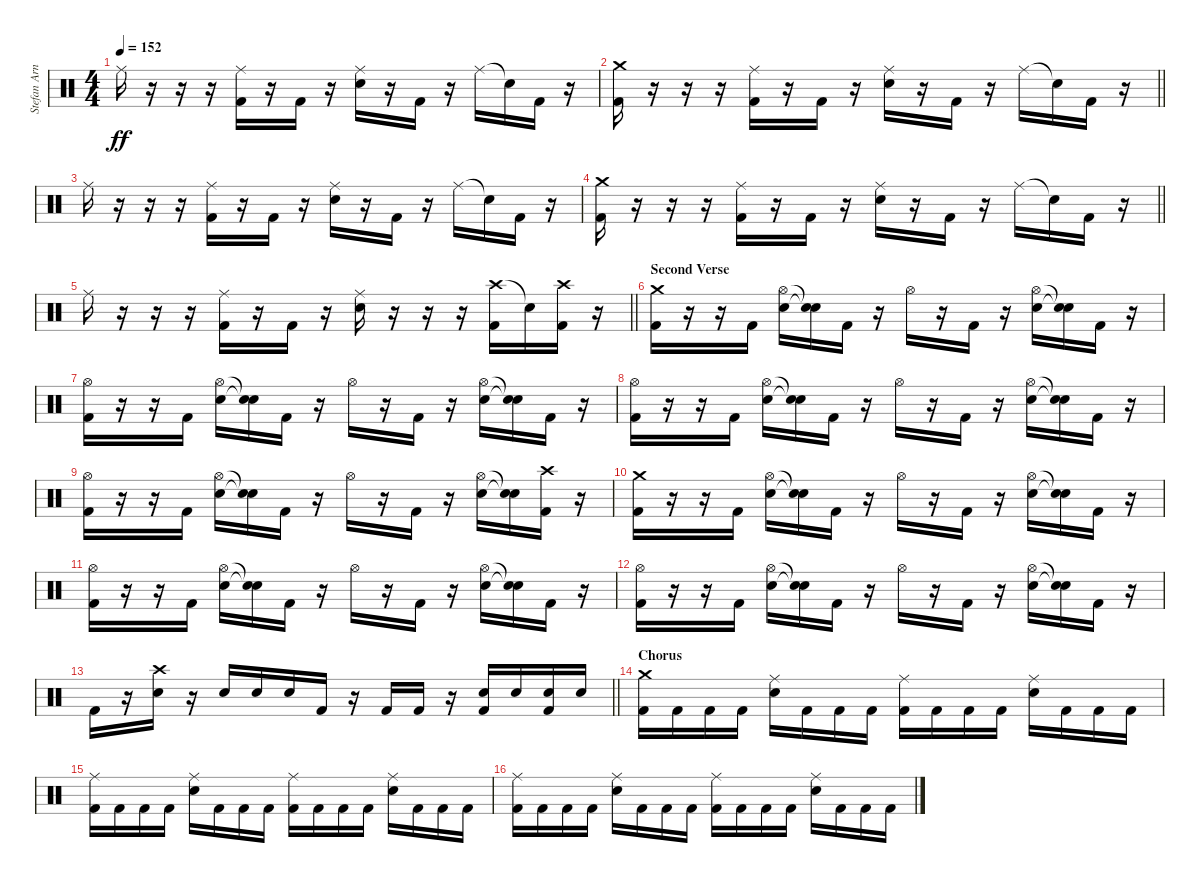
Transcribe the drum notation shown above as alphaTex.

\track ("Stefan Arnold" "Stefan Arn") {instrument percussion}
\staff {score}
\articulation defaults
\ts (4 4)
\tempo 152
\clef neutral
\ks c "Ride (middle)".16{dy ff}
r.16 r.16 r.16 ("Ride (middle)" "Kick (hit) 2").16 r.16 "Kick (hit) 2".16 r.16 ("Ride (middle)" "Electric Snare (hit)").16 r.16 "Kick (hit) 2".16 r.16 "Ride (middle)".16 "Snare (hit)"{t}.16 "Kick (hit) 2".16 r.16 |
\barLineRight lightlight
("Crash medium (hit)" "Kick (hit) 2").16 r.16 r.16 r.16 ("Ride (middle)" "Kick (hit) 2").16 r.16 "Kick (hit) 2".16 r.16 ("Ride (middle)" "Electric Snare (hit)").16 r.16 "Kick (hit) 2".16 r.16 "Ride (middle)".16 "Snare (hit)"{t}.16 "Kick (hit) 2".16 r.16 |
"Ride (middle)".16 r.16 r.16 r.16 ("Ride (middle)" "Kick (hit) 2").16 r.16 "Kick (hit) 2".16 r.16 ("Ride (middle)" "Electric Snare (hit)").16 r.16 "Kick (hit) 2".16 r.16 "Ride (middle)".16 "Snare (hit)"{t}.16 "Kick (hit) 2".16 r.16 |
\barLineRight lightlight
("Crash medium (hit)" "Kick (hit) 2").16 r.16 r.16 r.16 ("Ride (middle)" "Kick (hit) 2").16 r.16 "Kick (hit) 2".16 r.16 ("Ride (middle)" "Electric Snare (hit)").16 r.16 "Kick (hit) 2".16 r.16 "Ride (middle)".16 "Snare (hit)"{t}.16 "Kick (hit) 2".16 r.16 |
\barLineRight lightlight "Ride (middle)".16
r.16 r.16 r.16 ("Ride (middle)" "Kick (hit) 2").16 r.16 "Kick (hit) 2".16 r.16 ("Ride (middle)" "Electric Snare (hit)").16 r.16 r.16 r.16 ("Crash high (hit)" "Kick (hit) 2").16 "Snare (hit)"{t}.16 ("Crash high (hit)" "Kick (hit) 2").16 r.16 |
\section ("" "Second Verse")
("Crash medium (hit)" "Kick (hit) 2").16 r.16 r.16 "Kick (hit) 2".16 ("Hi-Hat (open)" "Electric Snare (hit)").16 ("Snare (hit)"{t} "Electric Snare (hit)"{t}).16 "Kick (hit) 2".16 r.16 "Hi-Hat (open)".16 r.16 "Kick (hit) 2".16 r.16 ("Hi-Hat (open)" "Electric Snare (hit)").16 ("Snare (hit)"{t} "Electric Snare (hit)"{t}).16 "Kick (hit) 2".16 r.16 |
("Hi-Hat (open)" "Kick (hit) 2").16 r.16 r.16 "Kick (hit) 2".16 ("Hi-Hat (open)" "Electric Snare (hit)").16 ("Snare (hit)"{t} "Electric Snare (hit)"{t}).16 "Kick (hit) 2".16 r.16 "Hi-Hat (open)".16 r.16 "Kick (hit) 2".16 r.16 ("Hi-Hat (open)" "Electric Snare (hit)").16 ("Snare (hit)"{t} "Electric Snare (hit)"{t}).16 "Kick (hit) 2".16 r.16 |
("Hi-Hat (open)" "Kick (hit) 2").16 r.16 r.16 "Kick (hit) 2".16 ("Hi-Hat (open)" "Electric Snare (hit)").16 ("Snare (hit)"{t} "Electric Snare (hit)"{t}).16 "Kick (hit) 2".16 r.16 "Hi-Hat (open)".16 r.16 "Kick (hit) 2".16 r.16 ("Hi-Hat (open)" "Electric Snare (hit)").16 ("Snare (hit)"{t} "Electric Snare (hit)"{t}).16 "Kick (hit) 2".16 r.16 |
("Hi-Hat (open)" "Kick (hit) 2").16 r.16 r.16 "Kick (hit) 2".16 ("Hi-Hat (open)" "Electric Snare (hit)").16 ("Snare (hit)"{t} "Electric Snare (hit)"{t}).16 "Kick (hit) 2".16 r.16 "Hi-Hat (open)".16 r.16 "Kick (hit) 2".16 r.16 ("Hi-Hat (open)" "Electric Snare (hit)").16 ("Snare (hit)"{t} "Electric Snare (hit)"{t}).16 ("Crash high (hit)" "Kick (hit) 2").16 r.16 |
("Crash medium (hit)" "Kick (hit) 2").16 r.16 r.16 "Kick (hit) 2".16 ("Hi-Hat (open)" "Electric Snare (hit)").16 ("Snare (hit)"{t} "Electric Snare (hit)"{t}).16 "Kick (hit) 2".16 r.16 "Hi-Hat (open)".16 r.16 "Kick (hit) 2".16 r.16 ("Hi-Hat (open)" "Electric Snare (hit)").16 ("Snare (hit)"{t} "Electric Snare (hit)"{t}).16 "Kick (hit) 2".16 r.16 |
("Hi-Hat (open)" "Kick (hit) 2").16 r.16 r.16 "Kick (hit) 2".16 ("Hi-Hat (open)" "Electric Snare (hit)").16 ("Snare (hit)"{t} "Electric Snare (hit)"{t}).16 "Kick (hit) 2".16 r.16 "Hi-Hat (open)".16 r.16 "Kick (hit) 2".16 r.16 ("Hi-Hat (open)" "Electric Snare (hit)").16 ("Snare (hit)"{t} "Electric Snare (hit)"{t}).16 "Kick (hit) 2".16 r.16 |
("Hi-Hat (open)" "Kick (hit) 2").16 r.16 r.16 "Kick (hit) 2".16 ("Hi-Hat (open)" "Electric Snare (hit)").16 ("Snare (hit)"{t} "Electric Snare (hit)"{t}).16 "Kick (hit) 2".16 r.16 "Hi-Hat (open)".16 r.16 "Kick (hit) 2".16 r.16 ("Hi-Hat (open)" "Electric Snare (hit)").16 ("Snare (hit)"{t} "Electric Snare (hit)"{t}).16 "Kick (hit) 2".16 r.16 |
\barLineRight lightlight "Kick (hit) 2".16
r.16 ("Crash high (hit)" "Electric Snare (hit)").16 r.16 "Electric Snare (hit)".16 "Electric Snare (hit)".16 "Electric Snare (hit)".16 "Kick (hit) 2".16 r.16 "Kick (hit) 2".16 "Kick (hit) 2".16 r.16 ("Electric Snare (hit)" "Kick (hit) 2").16 "Electric Snare (hit)".16 ("Electric Snare (hit)" "Kick (hit) 2").16 "Electric Snare (hit)".16 |
\section ("" "Chorus")
("Crash medium (hit)" "Kick (hit) 2").16 "Kick (hit) 2".16 "Kick (hit) 2".16 "Kick (hit) 2".16 ("Ride (middle)" "Electric Snare (hit)").16 "Kick (hit) 2".16 "Kick (hit) 2".16 "Kick (hit) 2".16 ("Ride (middle)" "Kick (hit) 2").16 "Kick (hit) 2".16 "Kick (hit) 2".16 "Kick (hit) 2".16 ("Ride (middle)" "Electric Snare (hit)").16 "Kick (hit) 2".16 "Kick (hit) 2".16 "Kick (hit) 2".16 |
("Ride (middle)" "Kick (hit) 2").16 "Kick (hit) 2".16 "Kick (hit) 2".16 "Kick (hit) 2".16 ("Ride (middle)" "Electric Snare (hit)").16 "Kick (hit) 2".16 "Kick (hit) 2".16 "Kick (hit) 2".16 ("Ride (middle)" "Kick (hit) 2").16 "Kick (hit) 2".16 "Kick (hit) 2".16 "Kick (hit) 2".16 ("Ride (middle)" "Electric Snare (hit)").16 "Kick (hit) 2".16 "Kick (hit) 2".16 "Kick (hit) 2".16 |
("Ride (middle)" "Kick (hit) 2").16 "Kick (hit) 2".16 "Kick (hit) 2".16 "Kick (hit) 2".16 ("Ride (middle)" "Electric Snare (hit)").16 "Kick (hit) 2".16 "Kick (hit) 2".16 "Kick (hit) 2".16 ("Ride (middle)" "Kick (hit) 2").16 "Kick (hit) 2".16 "Kick (hit) 2".16 "Kick (hit) 2".16 ("Ride (middle)" "Electric Snare (hit)").16 "Kick (hit) 2".16 "Kick (hit) 2".16 "Kick (hit) 2".16
